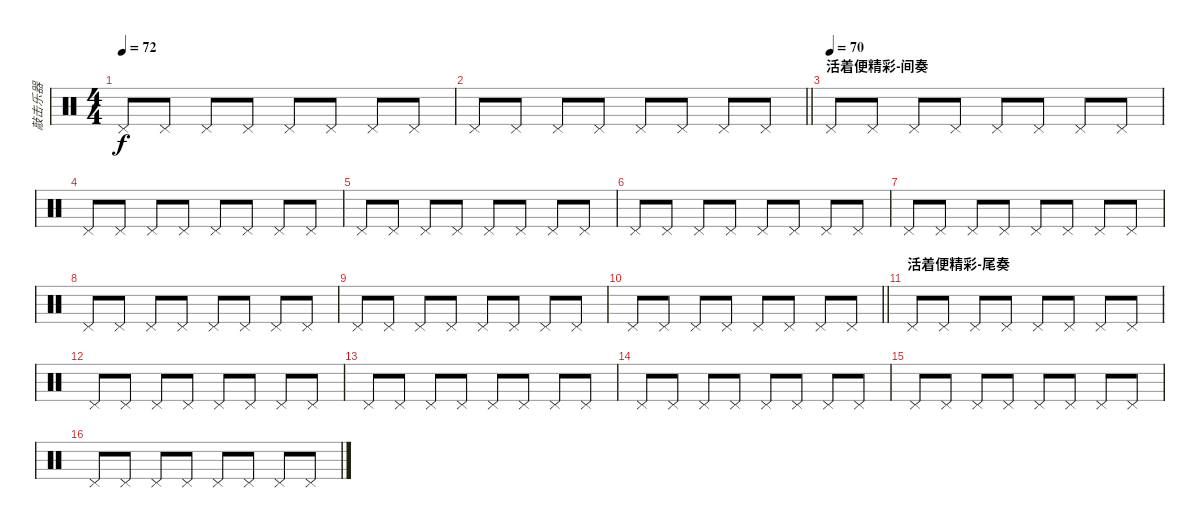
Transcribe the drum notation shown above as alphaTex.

\track ("敲击乐器" "敲击乐器") {instrument percussion}
\staff {score}
\articulation defaults
\ts (4 4)
\tempo 72
\clef neutral
\ks c "Pedal Hi-Hat (hit)".8{dy f} "Pedal Hi-Hat (hit)".8 "Pedal Hi-Hat (hit)".8 "Pedal Hi-Hat (hit)".8 "Pedal Hi-Hat (hit)".8 "Pedal Hi-Hat (hit)".8 "Pedal Hi-Hat (hit)".8 "Pedal Hi-Hat (hit)".8
|
\barLineRight lightlight "Pedal Hi-Hat (hit)".8 "Pedal Hi-Hat (hit)".8 "Pedal Hi-Hat (hit)".8 "Pedal Hi-Hat (hit)".8 "Pedal Hi-Hat (hit)".8 "Pedal Hi-Hat (hit)".8 "Pedal Hi-Hat (hit)".8 "Pedal Hi-Hat (hit)".8
|
\section ("" "活着便精彩-间奏")
\tempo (70)
"Pedal Hi-Hat (hit)".8 "Pedal Hi-Hat (hit)".8 "Pedal Hi-Hat (hit)".8 "Pedal Hi-Hat (hit)".8 "Pedal Hi-Hat (hit)".8 "Pedal Hi-Hat (hit)".8 "Pedal Hi-Hat (hit)".8 "Pedal Hi-Hat (hit)".8 |
"Pedal Hi-Hat (hit)".8 "Pedal Hi-Hat (hit)".8 "Pedal Hi-Hat (hit)".8 "Pedal Hi-Hat (hit)".8 "Pedal Hi-Hat (hit)".8 "Pedal Hi-Hat (hit)".8 "Pedal Hi-Hat (hit)".8 "Pedal Hi-Hat (hit)".8 |
"Pedal Hi-Hat (hit)".8 "Pedal Hi-Hat (hit)".8 "Pedal Hi-Hat (hit)".8 "Pedal Hi-Hat (hit)".8 "Pedal Hi-Hat (hit)".8 "Pedal Hi-Hat (hit)".8 "Pedal Hi-Hat (hit)".8 "Pedal Hi-Hat (hit)".8 |
"Pedal Hi-Hat (hit)".8 "Pedal Hi-Hat (hit)".8 "Pedal Hi-Hat (hit)".8 "Pedal Hi-Hat (hit)".8 "Pedal Hi-Hat (hit)".8 "Pedal Hi-Hat (hit)".8 "Pedal Hi-Hat (hit)".8 "Pedal Hi-Hat (hit)".8 |
"Pedal Hi-Hat (hit)".8 "Pedal Hi-Hat (hit)".8 "Pedal Hi-Hat (hit)".8 "Pedal Hi-Hat (hit)".8 "Pedal Hi-Hat (hit)".8 "Pedal Hi-Hat (hit)".8 "Pedal Hi-Hat (hit)".8 "Pedal Hi-Hat (hit)".8 |
"Pedal Hi-Hat (hit)".8 "Pedal Hi-Hat (hit)".8 "Pedal Hi-Hat (hit)".8 "Pedal Hi-Hat (hit)".8 "Pedal Hi-Hat (hit)".8 "Pedal Hi-Hat (hit)".8 "Pedal Hi-Hat (hit)".8 "Pedal Hi-Hat (hit)".8 |
"Pedal Hi-Hat (hit)".8 "Pedal Hi-Hat (hit)".8 "Pedal Hi-Hat (hit)".8 "Pedal Hi-Hat (hit)".8 "Pedal Hi-Hat (hit)".8 "Pedal Hi-Hat (hit)".8 "Pedal Hi-Hat (hit)".8 "Pedal Hi-Hat (hit)".8 |
\barLineRight lightlight "Pedal Hi-Hat (hit)".8 "Pedal Hi-Hat (hit)".8 "Pedal Hi-Hat (hit)".8 "Pedal Hi-Hat (hit)".8 "Pedal Hi-Hat (hit)".8 "Pedal Hi-Hat (hit)".8 "Pedal Hi-Hat (hit)".8 "Pedal Hi-Hat (hit)".8
|
\section ("" "活着便精彩-尾奏")
"Pedal Hi-Hat (hit)".8 "Pedal Hi-Hat (hit)".8 "Pedal Hi-Hat (hit)".8 "Pedal Hi-Hat (hit)".8 "Pedal Hi-Hat (hit)".8 "Pedal Hi-Hat (hit)".8 "Pedal Hi-Hat (hit)".8 "Pedal Hi-Hat (hit)".8 |
"Pedal Hi-Hat (hit)".8 "Pedal Hi-Hat (hit)".8 "Pedal Hi-Hat (hit)".8 "Pedal Hi-Hat (hit)".8 "Pedal Hi-Hat (hit)".8 "Pedal Hi-Hat (hit)".8 "Pedal Hi-Hat (hit)".8 "Pedal Hi-Hat (hit)".8 |
"Pedal Hi-Hat (hit)".8 "Pedal Hi-Hat (hit)".8 "Pedal Hi-Hat (hit)".8 "Pedal Hi-Hat (hit)".8 "Pedal Hi-Hat (hit)".8 "Pedal Hi-Hat (hit)".8 "Pedal Hi-Hat (hit)".8 "Pedal Hi-Hat (hit)".8 |
"Pedal Hi-Hat (hit)".8 "Pedal Hi-Hat (hit)".8 "Pedal Hi-Hat (hit)".8 "Pedal Hi-Hat (hit)".8 "Pedal Hi-Hat (hit)".8 "Pedal Hi-Hat (hit)".8 "Pedal Hi-Hat (hit)".8 "Pedal Hi-Hat (hit)".8 |
"Pedal Hi-Hat (hit)".8 "Pedal Hi-Hat (hit)".8 "Pedal Hi-Hat (hit)".8 "Pedal Hi-Hat (hit)".8 "Pedal Hi-Hat (hit)".8 "Pedal Hi-Hat (hit)".8 "Pedal Hi-Hat (hit)".8 "Pedal Hi-Hat (hit)".8 |
"Pedal Hi-Hat (hit)".8 "Pedal Hi-Hat (hit)".8 "Pedal Hi-Hat (hit)".8 "Pedal Hi-Hat (hit)".8 "Pedal Hi-Hat (hit)".8 "Pedal Hi-Hat (hit)".8 "Pedal Hi-Hat (hit)".8 "Pedal Hi-Hat (hit)".8
